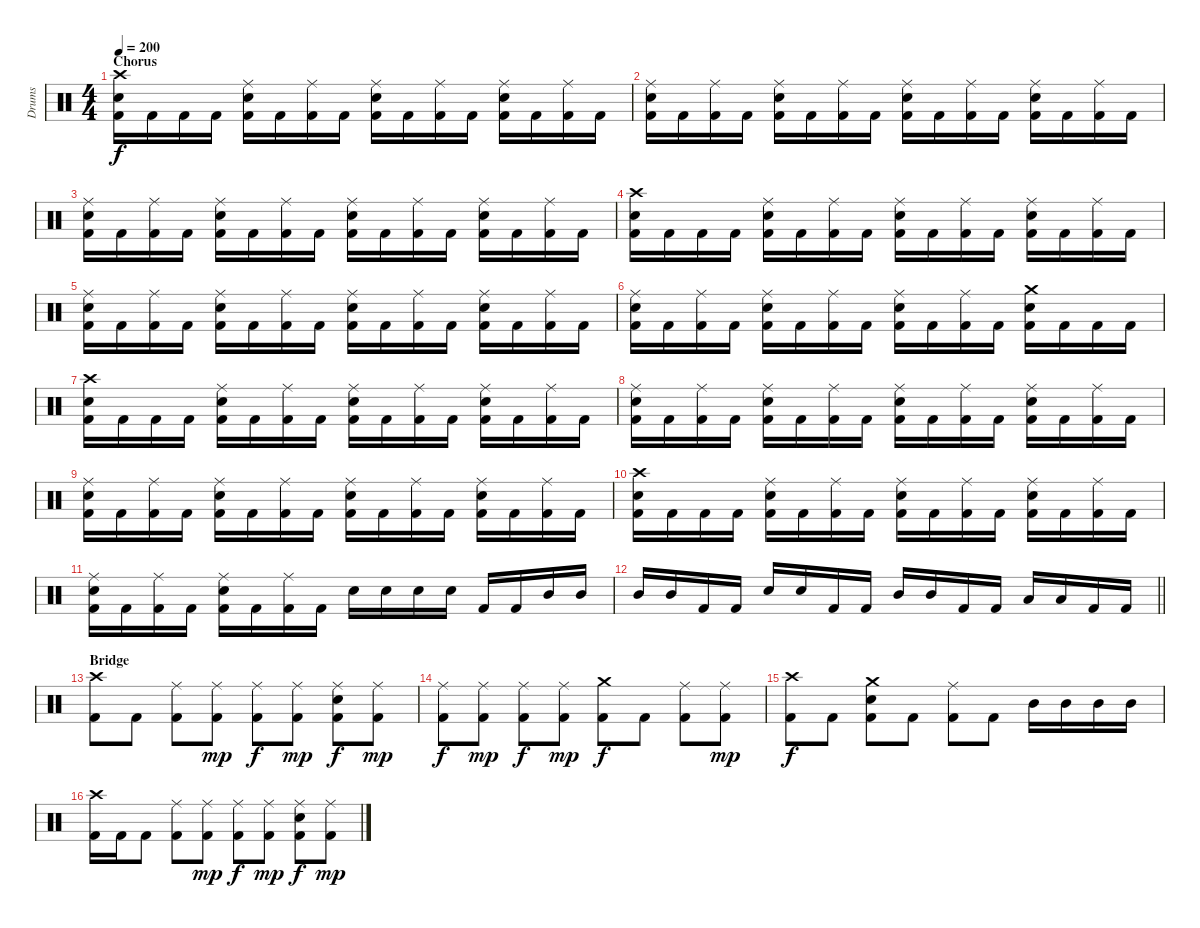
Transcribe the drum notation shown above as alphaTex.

\track ("Drums" "Drums") {instrument percussion}
\staff {score}
\articulation defaults
\ts (4 4)
\section ("" "Chorus")
\tempo 200
\clef neutral
\ks c
("Crash high (hit)" "Snare (hit) 2" "Kick (hit) 2").16{dy f} "Kick (hit) 2".16 "Kick (hit) 2".16 "Kick (hit) 2".16 ("Ride (middle)" "Snare (hit) 2" "Kick (hit) 2").16 "Kick (hit) 2".16 ("Ride (middle)" "Kick (hit) 2").16 "Kick (hit) 2".16 ("Ride (middle)" "Snare (hit) 2" "Kick (hit) 2").16 "Kick (hit) 2".16 ("Ride (middle)" "Kick (hit) 2").16 "Kick (hit) 2".16 ("Ride (middle)" "Snare (hit) 2" "Kick (hit) 2").16 "Kick (hit) 2".16 ("Ride (middle)" "Kick (hit) 2").16 "Kick (hit) 2".16 |
("Ride (middle)" "Snare (hit) 2" "Kick (hit) 2").16 "Kick (hit) 2".16 ("Ride (middle)" "Kick (hit) 2").16 "Kick (hit) 2".16 ("Ride (middle)" "Snare (hit) 2" "Kick (hit) 2").16 "Kick (hit) 2".16 ("Ride (middle)" "Kick (hit) 2").16 "Kick (hit) 2".16 ("Ride (middle)" "Snare (hit) 2" "Kick (hit) 2").16 "Kick (hit) 2".16 ("Ride (middle)" "Kick (hit) 2").16 "Kick (hit) 2".16 ("Ride (middle)" "Snare (hit) 2" "Kick (hit) 2").16 "Kick (hit) 2".16 ("Ride (middle)" "Kick (hit) 2").16 "Kick (hit) 2".16 |
("Ride (middle)" "Snare (hit) 2" "Kick (hit) 2").16 "Kick (hit) 2".16 ("Ride (middle)" "Kick (hit) 2").16 "Kick (hit) 2".16 ("Ride (middle)" "Snare (hit) 2" "Kick (hit) 2").16 "Kick (hit) 2".16 ("Ride (middle)" "Kick (hit) 2").16 "Kick (hit) 2".16 ("Ride (middle)" "Snare (hit) 2" "Kick (hit) 2").16 "Kick (hit) 2".16 ("Ride (middle)" "Kick (hit) 2").16 "Kick (hit) 2".16 ("Ride (middle)" "Snare (hit) 2" "Kick (hit) 2").16 "Kick (hit) 2".16 ("Ride (middle)" "Kick (hit) 2").16 "Kick (hit) 2".16 |
("Crash high (hit)" "Snare (hit) 2" "Kick (hit) 2").16 "Kick (hit) 2".16 "Kick (hit) 2".16 "Kick (hit) 2".16 ("Ride (middle)" "Snare (hit) 2" "Kick (hit) 2").16 "Kick (hit) 2".16 ("Ride (middle)" "Kick (hit) 2").16 "Kick (hit) 2".16 ("Ride (middle)" "Snare (hit) 2" "Kick (hit) 2").16 "Kick (hit) 2".16 ("Ride (middle)" "Kick (hit) 2").16 "Kick (hit) 2".16 ("Ride (middle)" "Snare (hit) 2" "Kick (hit) 2").16 "Kick (hit) 2".16 ("Ride (middle)" "Kick (hit) 2").16 "Kick (hit) 2".16 |
("Ride (middle)" "Snare (hit) 2" "Kick (hit) 2").16 "Kick (hit) 2".16 ("Ride (middle)" "Kick (hit) 2").16 "Kick (hit) 2".16 ("Ride (middle)" "Snare (hit) 2" "Kick (hit) 2").16 "Kick (hit) 2".16 ("Ride (middle)" "Kick (hit) 2").16 "Kick (hit) 2".16 ("Ride (middle)" "Snare (hit) 2" "Kick (hit) 2").16 "Kick (hit) 2".16 ("Ride (middle)" "Kick (hit) 2").16 "Kick (hit) 2".16 ("Ride (middle)" "Snare (hit) 2" "Kick (hit) 2").16 "Kick (hit) 2".16 ("Ride (middle)" "Kick (hit) 2").16 "Kick (hit) 2".16 |
("Ride (middle)" "Snare (hit) 2" "Kick (hit) 2").16 "Kick (hit) 2".16 ("Ride (middle)" "Kick (hit) 2").16 "Kick (hit) 2".16 ("Ride (middle)" "Snare (hit) 2" "Kick (hit) 2").16 "Kick (hit) 2".16 ("Ride (middle)" "Kick (hit) 2").16 "Kick (hit) 2".16 ("Ride (middle)" "Snare (hit) 2" "Kick (hit) 2").16 "Kick (hit) 2".16 ("Ride (middle)" "Kick (hit) 2").16 "Kick (hit) 2".16 ("Crash medium (hit)" "Snare (hit) 2" "Kick (hit) 2").16 "Kick (hit) 2".16 "Kick (hit) 2".16 "Kick (hit) 2".16 |
("Crash high (hit)" "Snare (hit) 2" "Kick (hit) 2").16 "Kick (hit) 2".16 "Kick (hit) 2".16 "Kick (hit) 2".16 ("Ride (middle)" "Snare (hit) 2" "Kick (hit) 2").16 "Kick (hit) 2".16 ("Ride (middle)" "Kick (hit) 2").16 "Kick (hit) 2".16 ("Ride (middle)" "Snare (hit) 2" "Kick (hit) 2").16 "Kick (hit) 2".16 ("Ride (middle)" "Kick (hit) 2").16 "Kick (hit) 2".16 ("Ride (middle)" "Snare (hit) 2" "Kick (hit) 2").16 "Kick (hit) 2".16 ("Ride (middle)" "Kick (hit) 2").16 "Kick (hit) 2".16 |
("Ride (middle)" "Snare (hit) 2" "Kick (hit) 2").16 "Kick (hit) 2".16 ("Ride (middle)" "Kick (hit) 2").16 "Kick (hit) 2".16 ("Ride (middle)" "Snare (hit) 2" "Kick (hit) 2").16 "Kick (hit) 2".16 ("Ride (middle)" "Kick (hit) 2").16 "Kick (hit) 2".16 ("Ride (middle)" "Snare (hit) 2" "Kick (hit) 2").16 "Kick (hit) 2".16 ("Ride (middle)" "Kick (hit) 2").16 "Kick (hit) 2".16 ("Ride (middle)" "Snare (hit) 2" "Kick (hit) 2").16 "Kick (hit) 2".16 ("Ride (middle)" "Kick (hit) 2").16 "Kick (hit) 2".16 |
("Ride (middle)" "Snare (hit) 2" "Kick (hit) 2").16 "Kick (hit) 2".16 ("Ride (middle)" "Kick (hit) 2").16 "Kick (hit) 2".16 ("Ride (middle)" "Snare (hit) 2" "Kick (hit) 2").16 "Kick (hit) 2".16 ("Ride (middle)" "Kick (hit) 2").16 "Kick (hit) 2".16 ("Ride (middle)" "Snare (hit) 2" "Kick (hit) 2").16 "Kick (hit) 2".16 ("Ride (middle)" "Kick (hit) 2").16 "Kick (hit) 2".16 ("Ride (middle)" "Snare (hit) 2" "Kick (hit) 2").16 "Kick (hit) 2".16 ("Ride (middle)" "Kick (hit) 2").16 "Kick (hit) 2".16 |
("Crash high (hit)" "Snare (hit) 2" "Kick (hit) 2").16 "Kick (hit) 2".16 "Kick (hit) 2".16 "Kick (hit) 2".16 ("Ride (middle)" "Snare (hit) 2" "Kick (hit) 2").16 "Kick (hit) 2".16 ("Ride (middle)" "Kick (hit) 2").16 "Kick (hit) 2".16 ("Ride (middle)" "Snare (hit) 2" "Kick (hit) 2").16 "Kick (hit) 2".16 ("Ride (middle)" "Kick (hit) 2").16 "Kick (hit) 2".16 ("Ride (middle)" "Snare (hit) 2" "Kick (hit) 2").16 "Kick (hit) 2".16 ("Ride (middle)" "Kick (hit) 2").16 "Kick (hit) 2".16 |
("Ride (middle)" "Snare (hit) 2" "Kick (hit) 2").16 "Kick (hit) 2".16 ("Ride (middle)" "Kick (hit) 2").16 "Kick (hit) 2".16 ("Ride (middle)" "Snare (hit) 2" "Kick (hit) 2").16 "Kick (hit) 2".16 ("Ride (middle)" "Kick (hit) 2").16 "Kick (hit) 2".16 "Snare (hit) 2".16 "Snare (hit) 2".16 "Snare (hit) 2".16 "Snare (hit) 2".16 "Kick (hit) 2".16 "Kick (hit) 2".16 "Mid Tom (hit)".16 "Mid Tom (hit)".16 |
\barLineRight lightlight "Mid Tom (hit)".16 "Mid Tom (hit)".16 "Kick (hit) 2".16 "Kick (hit) 2".16 "Snare (hit) 2".16 "Snare (hit) 2".16 "Kick (hit) 2".16 "Kick (hit) 2".16 "Mid Tom (hit)".16 "Mid Tom (hit)".16 "Kick (hit) 2".16 "Kick (hit) 2".16 "Low Tom (hit)".16 "Low Tom (hit)".16 "Kick (hit) 2".16 "Kick (hit) 2".16
|
\section ("" "Bridge")
("Crash high (hit)" "Kick (hit) 2").8 "Kick (hit) 2".8 ("Ride (middle)" "Kick (hit) 2").8 ("Ride (middle)" "Kick (hit) 2").8{dy mp} ("Ride (middle)" "Kick (hit) 2").8{dy f} ("Ride (middle)" "Kick (hit) 2").8{dy mp} ("Ride (middle)" "Snare (hit) 2" "Kick (hit) 2").8{dy f} ("Ride (middle)" "Kick (hit) 2").8{dy mp} |
("Ride (middle)" "Kick (hit) 2").8{dy f} ("Ride (middle)" "Kick (hit) 2").8{dy mp} ("Ride (middle)" "Kick (hit) 2").8{dy f} ("Ride (middle)" "Kick (hit) 2").8{dy mp} ("Crash medium (hit)" "Kick (hit) 2").8{dy f} "Kick (hit) 2".8 ("Ride (middle)" "Kick (hit) 2").8 ("Ride (middle)" "Kick (hit) 2").8{dy mp} |
("Crash high (hit)" "Kick (hit) 2").8{dy f} "Kick (hit) 2".8 ("Crash medium (hit)" "Snare (hit) 2" "Kick (hit) 2").8 "Kick (hit) 2".8 ("Ride (middle)" "Kick (hit) 2").8 "Kick (hit) 2".8 "Mid Tom (hit)".16 "Mid Tom (hit)".16 "Mid Tom (hit)".16 "Mid Tom (hit)".16 |
("Crash high (hit)" "Kick (hit) 2").16 "Kick (hit) 2".16 "Kick (hit) 2".8 ("Ride (middle)" "Kick (hit) 2").8 ("Ride (middle)" "Kick (hit) 2").8{dy mp} ("Ride (middle)" "Kick (hit) 2").8{dy f} ("Ride (middle)" "Kick (hit) 2").8{dy mp} ("Ride (middle)" "Snare (hit) 2" "Kick (hit) 2").8{dy f} ("Ride (middle)" "Kick (hit) 2").8{dy mp}
